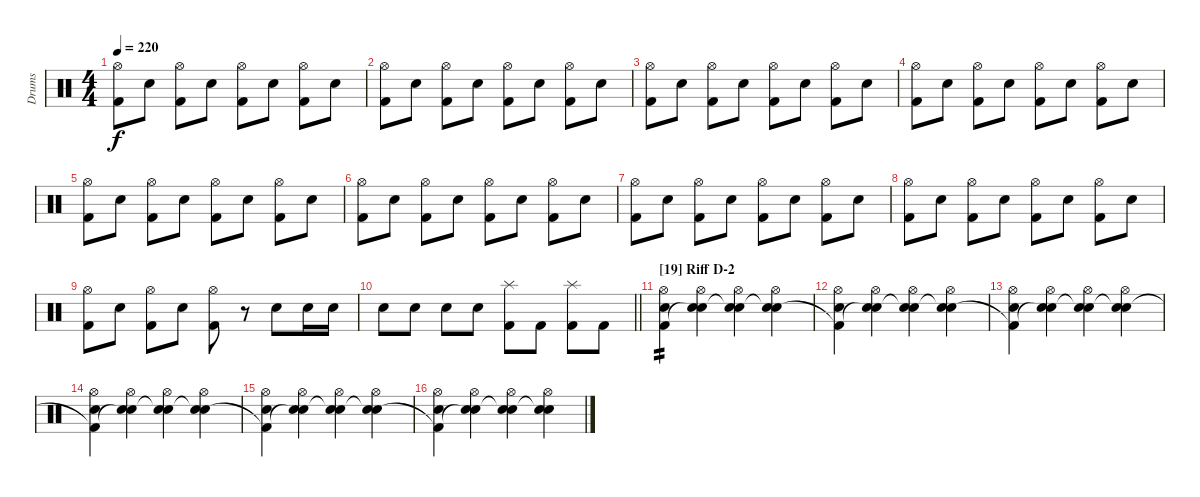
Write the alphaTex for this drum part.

\track ("Drums" "Drums") {instrument percussion}
\staff {score}
\articulation defaults
\ts (4 4)
\tempo 220
\clef neutral
\ks c
("Hi-Hat (open)" "Kick (hit) 2").8{dy f} "Snare (hit) 2".8 ("Hi-Hat (open)" "Kick (hit) 2").8 "Snare (hit) 2".8 ("Hi-Hat (open)" "Kick (hit) 2").8 "Snare (hit) 2".8 ("Hi-Hat (open)" "Kick (hit) 2").8 "Snare (hit) 2".8 |
("Hi-Hat (open)" "Kick (hit) 2").8 "Snare (hit) 2".8 ("Hi-Hat (open)" "Kick (hit) 2").8 "Snare (hit) 2".8 ("Hi-Hat (open)" "Kick (hit) 2").8 "Snare (hit) 2".8 ("Hi-Hat (open)" "Kick (hit) 2").8 "Snare (hit) 2".8 |
("Hi-Hat (open)" "Kick (hit) 2").8 "Snare (hit) 2".8 ("Hi-Hat (open)" "Kick (hit) 2").8 "Snare (hit) 2".8 ("Hi-Hat (open)" "Kick (hit) 2").8 "Snare (hit) 2".8 ("Hi-Hat (open)" "Kick (hit) 2").8 "Snare (hit) 2".8 |
("Hi-Hat (open)" "Kick (hit) 2").8 "Snare (hit) 2".8 ("Hi-Hat (open)" "Kick (hit) 2").8 "Snare (hit) 2".8 ("Hi-Hat (open)" "Kick (hit) 2").8 "Snare (hit) 2".8 ("Hi-Hat (open)" "Kick (hit) 2").8 "Snare (hit) 2".8 |
("Hi-Hat (open)" "Kick (hit) 2").8 "Snare (hit) 2".8 ("Hi-Hat (open)" "Kick (hit) 2").8 "Snare (hit) 2".8 ("Hi-Hat (open)" "Kick (hit) 2").8 "Snare (hit) 2".8 ("Hi-Hat (open)" "Kick (hit) 2").8 "Snare (hit) 2".8 |
("Hi-Hat (open)" "Kick (hit) 2").8 "Snare (hit) 2".8 ("Hi-Hat (open)" "Kick (hit) 2").8 "Snare (hit) 2".8 ("Hi-Hat (open)" "Kick (hit) 2").8 "Snare (hit) 2".8 ("Hi-Hat (open)" "Kick (hit) 2").8 "Snare (hit) 2".8 |
("Hi-Hat (open)" "Kick (hit) 2").8 "Snare (hit) 2".8 ("Hi-Hat (open)" "Kick (hit) 2").8 "Snare (hit) 2".8 ("Hi-Hat (open)" "Kick (hit) 2").8 "Snare (hit) 2".8 ("Hi-Hat (open)" "Kick (hit) 2").8 "Snare (hit) 2".8 |
("Hi-Hat (open)" "Kick (hit) 2").8 "Snare (hit) 2".8 ("Hi-Hat (open)" "Kick (hit) 2").8 "Snare (hit) 2".8 ("Hi-Hat (open)" "Kick (hit) 2").8 "Snare (hit) 2".8 ("Hi-Hat (open)" "Kick (hit) 2").8 "Snare (hit) 2".8 |
("Hi-Hat (open)" "Kick (hit) 2").8 "Snare (hit) 2".8 ("Hi-Hat (open)" "Kick (hit) 2").8 "Snare (hit) 2".8 ("Hi-Hat (open)" "Kick (hit) 2").8 r.8 "Snare (hit) 2".8 "Snare (hit) 2".16 "Snare (hit) 2".16 |
\barLineRight lightlight "Snare (hit) 2".8 "Snare (hit) 2".8 "Snare (hit) 2".8 "Snare (hit) 2".8
("Splash (hit)" "Kick (hit) 2").8 "Kick (hit) 2".8 ("Splash (hit)" "Kick (hit) 2").8 "Kick (hit) 2".8 |
\section ("" "[19] Riff D-2")
("Hi-Hat (open)" "Snare (hit) 2" "Kick (hit) 2").4{tp 2} ("Hi-Hat (open)" "Snare (hit) 2" "Snare (hit)"{t}).4 ("Hi-Hat (open)" "Snare (hit) 2" "Snare (hit)"{t}).4 ("Hi-Hat (open)" "Snare (hit) 2" "Snare (hit)"{t}).4 |
("Hi-Hat (open)" "Snare (hit) 2" "Kick (hit) 2"{t}).4 ("Hi-Hat (open)" "Snare (hit) 2" "Snare (hit)"{t}).4 ("Hi-Hat (open)" "Snare (hit) 2" "Snare (hit)"{t}).4 ("Hi-Hat (open)" "Snare (hit) 2" "Snare (hit)"{t}).4 |
("Hi-Hat (open)" "Snare (hit) 2" "Kick (hit) 2"{t}).4 ("Hi-Hat (open)" "Snare (hit) 2" "Snare (hit)"{t}).4 ("Hi-Hat (open)" "Snare (hit) 2" "Snare (hit)"{t}).4 ("Hi-Hat (open)" "Snare (hit) 2" "Snare (hit)"{t}).4 |
("Hi-Hat (open)" "Snare (hit) 2" "Kick (hit) 2"{t}).4 ("Hi-Hat (open)" "Snare (hit) 2" "Snare (hit)"{t}).4 ("Hi-Hat (open)" "Snare (hit) 2" "Snare (hit)"{t}).4 ("Hi-Hat (open)" "Snare (hit) 2" "Snare (hit)"{t}).4 |
("Hi-Hat (open)" "Snare (hit) 2" "Kick (hit) 2"{t}).4 ("Hi-Hat (open)" "Snare (hit) 2" "Snare (hit)"{t}).4 ("Hi-Hat (open)" "Snare (hit) 2" "Snare (hit)"{t}).4 ("Hi-Hat (open)" "Snare (hit) 2" "Snare (hit)"{t}).4 |
("Hi-Hat (open)" "Snare (hit) 2" "Kick (hit) 2"{t}).4 ("Hi-Hat (open)" "Snare (hit) 2" "Snare (hit)"{t}).4 ("Hi-Hat (open)" "Snare (hit) 2" "Snare (hit)"{t}).4 ("Hi-Hat (open)" "Snare (hit) 2" "Snare (hit)"{t}).4
